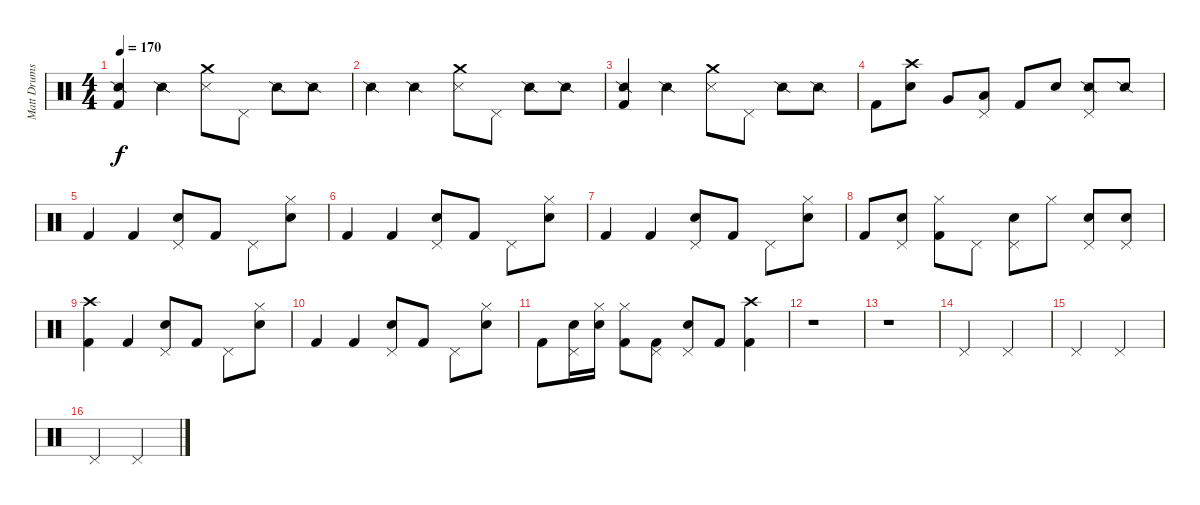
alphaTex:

\track ("Matt Drums" "Matt Drums") {instrument percussion}
\staff {score}
\articulation defaults
\ts (4 4)
\tempo 170
\clef neutral
\ks c
("Kick (hit) 2" "Snare (side stick) 2").4{dy f} "Snare (side stick) 2".4 ("Crash medium (hit)" "Snare (side stick) 3").8 "Pedal Hi-Hat (hit)".8 "Snare (side stick) 2".8 "Snare (side stick) 2".8 |
"Snare (side stick) 2".4 "Snare (side stick) 2".4 ("Crash medium (hit)" "Snare (side stick) 3").8 "Pedal Hi-Hat (hit)".8 "Snare (side stick) 2".8 "Snare (side stick) 2".8 |
("Kick (hit) 2" "Snare (side stick) 2").4 "Snare (side stick) 2".4 ("Crash medium (hit)" "Snare (side stick) 3").8 "Pedal Hi-Hat (hit)".8 "Snare (side stick) 2".8 "Snare (side stick) 2".8 |
"Kick (hit) 2".8 ("Crash high (hit)" "Electric Snare (hit)").8 "Very Low Tom (hit)".8 ("Pedal Hi-Hat (hit)" "Low Tom (hit)").8 "Kick (hit) 2".8 "Electric Snare (hit)".8 ("Pedal Hi-Hat (hit)" "Snare (side stick) 2").8 "Snare (side stick) 2".8 |
"Kick (hit) 2".4 "Kick (hit) 2".4 ("Pedal Hi-Hat (hit)" "Electric Snare (hit)").8 "Kick (hit) 2".8 "Pedal Hi-Hat (hit)".8 ("Hi-Hat (closed)" "Electric Snare (hit)").8 |
"Kick (hit) 2".4 "Kick (hit) 2".4 ("Pedal Hi-Hat (hit)" "Electric Snare (hit)").8 "Kick (hit) 2".8 "Pedal Hi-Hat (hit)".8 ("Hi-Hat (closed)" "Electric Snare (hit)").8 |
"Kick (hit) 2".4 "Kick (hit) 2".4 ("Pedal Hi-Hat (hit)" "Electric Snare (hit)").8 "Kick (hit) 2".8 "Pedal Hi-Hat (hit)".8 ("Hi-Hat (closed)" "Electric Snare (hit)").8 |
"Kick (hit) 2".8 ("Pedal Hi-Hat (hit)" "Electric Snare (hit)").8 ("Hi-Hat (closed)" "Kick (hit) 2").8 "Pedal Hi-Hat (hit)".8 ("Pedal Hi-Hat (hit)" "Electric Snare (hit)").8 "Hi-Hat (closed)".8 ("Pedal Hi-Hat (hit)" "Electric Snare (hit)").8 ("Pedal Hi-Hat (hit)" "Electric Snare (hit)").8 |
("Crash high (hit)" "Kick (hit) 2").4 "Kick (hit) 2".4 ("Pedal Hi-Hat (hit)" "Electric Snare (hit)").8 "Kick (hit) 2".8 "Pedal Hi-Hat (hit)".8 ("Hi-Hat (closed)" "Electric Snare (hit)").8 |
"Kick (hit) 2".4 "Kick (hit) 2".4 ("Pedal Hi-Hat (hit)" "Electric Snare (hit)").8 "Kick (hit) 2".8 "Pedal Hi-Hat (hit)".8 ("Hi-Hat (closed)" "Electric Snare (hit)").8 |
"Kick (hit) 2".8 ("Pedal Hi-Hat (hit)" "Electric Snare (hit)").16 ("Hi-Hat (closed)" "Electric Snare (hit)").16 ("Hi-Hat (closed)" "Kick (hit) 2").8 ("Pedal Hi-Hat (hit)" "Kick (hit) 2").8 ("Pedal Hi-Hat (hit)" "Electric Snare (hit)").8 "Kick (hit) 2".8 ("Crash high (hit)" "Kick (hit) 2").4 |
r.1 |
r.1 |
"Pedal Hi-Hat (hit)".2 "Pedal Hi-Hat (hit)".2 |
"Pedal Hi-Hat (hit)".2 "Pedal Hi-Hat (hit)".2 |
"Pedal Hi-Hat (hit)".2 "Pedal Hi-Hat (hit)".2
